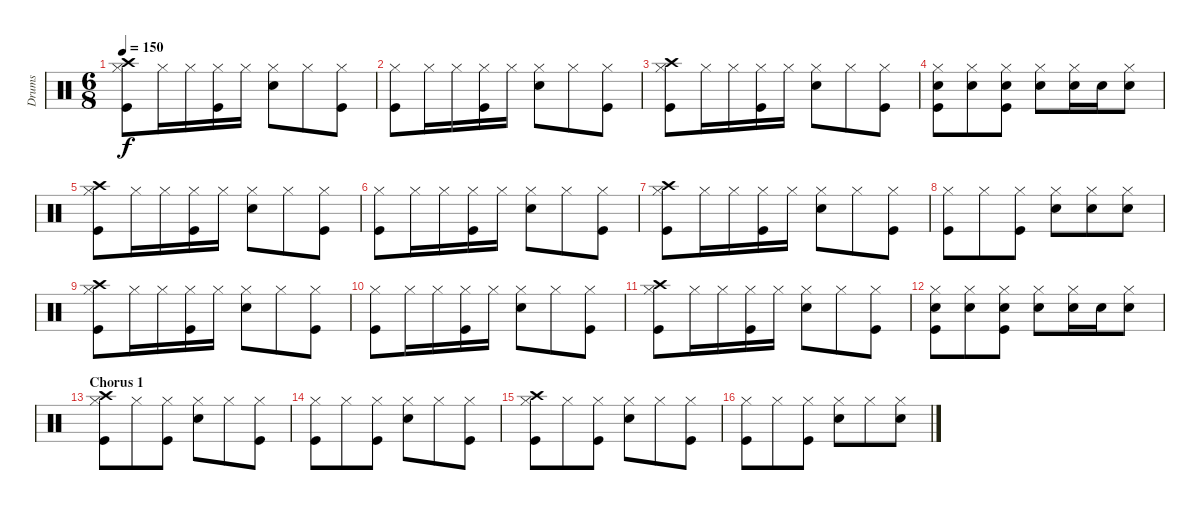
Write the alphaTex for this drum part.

\track ("Drums" "Drums") {instrument percussion}
\staff {score}
\articulation defaults
\ts (6 8)
\tempo 150
\clef neutral
\ks c
("Hi-Hat (closed)" "Crash high (hit)" "Kick (hit)").8{dy f} "Hi-Hat (closed)".16 "Hi-Hat (closed)".16 ("Hi-Hat (closed)" "Kick (hit)").16 "Hi-Hat (closed)".16 ("Hi-Hat (closed)" "Snare (hit) 2").8 "Hi-Hat (closed)".8 ("Hi-Hat (closed)" "Kick (hit)").8 |
("Hi-Hat (closed)" "Kick (hit)").8 "Hi-Hat (closed)".16 "Hi-Hat (closed)".16 ("Hi-Hat (closed)" "Kick (hit)").16 "Hi-Hat (closed)".16 ("Hi-Hat (closed)" "Snare (hit) 2").8 "Hi-Hat (closed)".8 ("Hi-Hat (closed)" "Kick (hit)").8 |
("Hi-Hat (closed)" "Crash high (hit)" "Kick (hit)").8 "Hi-Hat (closed)".16 "Hi-Hat (closed)".16 ("Hi-Hat (closed)" "Kick (hit)").16 "Hi-Hat (closed)".16 ("Hi-Hat (closed)" "Snare (hit) 2").8 "Hi-Hat (closed)".8 ("Hi-Hat (closed)" "Kick (hit)").8 |
("Hi-Hat (closed)" "Snare (hit) 2" "Kick (hit)").8 ("Hi-Hat (closed)" "Snare (hit) 2").8 ("Hi-Hat (closed)" "Snare (hit) 2" "Kick (hit)").8 ("Hi-Hat (closed)" "Snare (hit) 2").8 ("Hi-Hat (closed)" "Snare (hit) 2").16 "Snare (hit) 2".16 ("Hi-Hat (closed)" "Snare (hit) 2").8 |
("Hi-Hat (closed)" "Crash high (hit)" "Kick (hit)").8 "Hi-Hat (closed)".16 "Hi-Hat (closed)".16 ("Hi-Hat (closed)" "Kick (hit)").16 "Hi-Hat (closed)".16 ("Hi-Hat (closed)" "Snare (hit) 2").8 "Hi-Hat (closed)".8 ("Hi-Hat (closed)" "Kick (hit)").8 |
("Hi-Hat (closed)" "Kick (hit)").8 "Hi-Hat (closed)".16 "Hi-Hat (closed)".16 ("Hi-Hat (closed)" "Kick (hit)").16 "Hi-Hat (closed)".16 ("Hi-Hat (closed)" "Snare (hit) 2").8 "Hi-Hat (closed)".8 ("Hi-Hat (closed)" "Kick (hit)").8 |
("Hi-Hat (closed)" "Crash high (hit)" "Kick (hit)").8 "Hi-Hat (closed)".16 "Hi-Hat (closed)".16 ("Hi-Hat (closed)" "Kick (hit)").16 "Hi-Hat (closed)".16 ("Hi-Hat (closed)" "Snare (hit) 2").8 "Hi-Hat (closed)".8 ("Hi-Hat (closed)" "Kick (hit)").8 |
("Hi-Hat (closed)" "Kick (hit)").8 "Hi-Hat (closed)".8 ("Hi-Hat (closed)" "Kick (hit)").8 ("Hi-Hat (closed)" "Snare (hit) 2").8 ("Hi-Hat (closed)" "Snare (hit) 2").8 ("Hi-Hat (closed)" "Snare (hit) 2").8 |
("Hi-Hat (closed)" "Crash high (hit)" "Kick (hit)").8 "Hi-Hat (closed)".16 "Hi-Hat (closed)".16 ("Hi-Hat (closed)" "Kick (hit)").16 "Hi-Hat (closed)".16 ("Hi-Hat (closed)" "Snare (hit) 2").8 "Hi-Hat (closed)".8 ("Hi-Hat (closed)" "Kick (hit)").8 |
("Hi-Hat (closed)" "Kick (hit)").8 "Hi-Hat (closed)".16 "Hi-Hat (closed)".16 ("Hi-Hat (closed)" "Kick (hit)").16 "Hi-Hat (closed)".16 ("Hi-Hat (closed)" "Snare (hit) 2").8 "Hi-Hat (closed)".8 ("Hi-Hat (closed)" "Kick (hit)").8 |
("Hi-Hat (closed)" "Crash high (hit)" "Kick (hit)").8 "Hi-Hat (closed)".16 "Hi-Hat (closed)".16 ("Hi-Hat (closed)" "Kick (hit)").16 "Hi-Hat (closed)".16 ("Hi-Hat (closed)" "Snare (hit) 2").8 "Hi-Hat (closed)".8 ("Hi-Hat (closed)" "Kick (hit)").8 |
("Hi-Hat (closed)" "Snare (hit) 2" "Kick (hit)").8 ("Hi-Hat (closed)" "Snare (hit) 2").8 ("Hi-Hat (closed)" "Snare (hit) 2" "Kick (hit)").8 ("Hi-Hat (closed)" "Snare (hit) 2").8 ("Hi-Hat (closed)" "Snare (hit) 2").16 "Snare (hit) 2".16 ("Hi-Hat (closed)" "Snare (hit) 2").8 |
\section ("" "Chorus 1")
("Hi-Hat (closed)" "Crash high (hit)" "Kick (hit)").8 "Hi-Hat (closed)".8 ("Hi-Hat (closed)" "Kick (hit)").8 ("Hi-Hat (closed)" "Snare (hit) 2").8 "Hi-Hat (closed)".8 ("Hi-Hat (closed)" "Kick (hit)").8 |
("Hi-Hat (closed)" "Kick (hit)").8 "Hi-Hat (closed)".8 ("Hi-Hat (closed)" "Kick (hit)").8 ("Hi-Hat (closed)" "Snare (hit) 2").8 "Hi-Hat (closed)".8 ("Hi-Hat (closed)" "Kick (hit)").8 |
("Hi-Hat (closed)" "Crash high (hit)" "Kick (hit)").8 "Hi-Hat (closed)".8 ("Hi-Hat (closed)" "Kick (hit)").8 ("Hi-Hat (closed)" "Snare (hit) 2").8 "Hi-Hat (closed)".8 ("Hi-Hat (closed)" "Kick (hit)").8 |
("Hi-Hat (closed)" "Kick (hit)").8 "Hi-Hat (closed)".8 ("Hi-Hat (closed)" "Kick (hit)").8 ("Hi-Hat (closed)" "Snare (hit) 2").8 "Hi-Hat (closed)".8 ("Hi-Hat (closed)" "Snare (hit) 2").8
